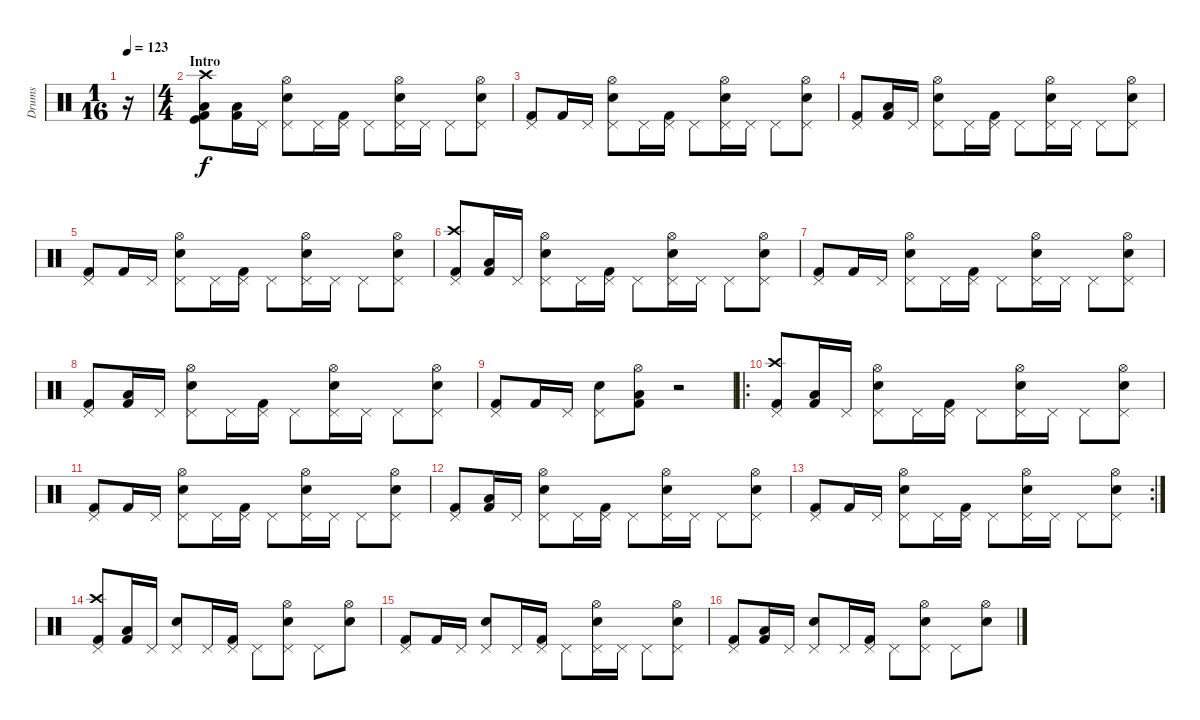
\track ("Drums" "Drums") {instrument percussion}
\staff {score}
\articulation defaults
\ts (1 16)
\tempo 123
\clef neutral
\ks c
r.16{dy f} |
\ts (4 4)
\section ("" "Intro")
("Kick (hit) 2" "Kick (hit)" "Low Floor Tom (hit)" "Crash high (hit)").8 ("Kick (hit) 2" "Low Tom (hit)").16 "Pedal Hi-Hat (hit)".16 ("Snare (hit) 2" "Pedal Hi-Hat (hit)" "Hi-Hat (open)").8 "Pedal Hi-Hat (hit)".16 ("Kick (hit) 2" "Pedal Hi-Hat (hit)").16 "Pedal Hi-Hat (hit)".8 ("Snare (hit) 2" "Pedal Hi-Hat (hit)" "Hi-Hat (open)").16 "Pedal Hi-Hat (hit)".16 "Pedal Hi-Hat (hit)".8 ("Snare (hit) 2" "Pedal Hi-Hat (hit)" "Hi-Hat (open)").8 |
("Kick (hit) 2" "Pedal Hi-Hat (hit)").8 "Kick (hit) 2".16 "Pedal Hi-Hat (hit)".16 ("Snare (hit) 2" "Pedal Hi-Hat (hit)" "Hi-Hat (open)").8 "Pedal Hi-Hat (hit)".16 ("Kick (hit) 2" "Pedal Hi-Hat (hit)").16 "Pedal Hi-Hat (hit)".8 ("Snare (hit) 2" "Pedal Hi-Hat (hit)" "Hi-Hat (open)").16 "Pedal Hi-Hat (hit)".16 "Pedal Hi-Hat (hit)".8 ("Snare (hit) 2" "Pedal Hi-Hat (hit)" "Hi-Hat (open)").8 |
("Kick (hit) 2" "Pedal Hi-Hat (hit)").8 ("Kick (hit) 2" "Low Tom (hit)").16 "Pedal Hi-Hat (hit)".16 ("Snare (hit) 2" "Pedal Hi-Hat (hit)" "Hi-Hat (open)").8 "Pedal Hi-Hat (hit)".16 ("Kick (hit) 2" "Pedal Hi-Hat (hit)").16 "Pedal Hi-Hat (hit)".8 ("Snare (hit) 2" "Pedal Hi-Hat (hit)" "Hi-Hat (open)").16 "Pedal Hi-Hat (hit)".16 "Pedal Hi-Hat (hit)".8 ("Snare (hit) 2" "Pedal Hi-Hat (hit)" "Hi-Hat (open)").8 |
("Kick (hit) 2" "Pedal Hi-Hat (hit)").8 "Kick (hit) 2".16 "Pedal Hi-Hat (hit)".16 ("Snare (hit) 2" "Pedal Hi-Hat (hit)" "Hi-Hat (open)").8 "Pedal Hi-Hat (hit)".16 ("Kick (hit) 2" "Pedal Hi-Hat (hit)").16 "Pedal Hi-Hat (hit)".8 ("Snare (hit) 2" "Pedal Hi-Hat (hit)" "Hi-Hat (open)").16 "Pedal Hi-Hat (hit)".16 "Pedal Hi-Hat (hit)".8 ("Snare (hit) 2" "Pedal Hi-Hat (hit)" "Hi-Hat (open)").8 |
("Kick (hit) 2" "Pedal Hi-Hat (hit)" "Crash high (hit)").8 ("Kick (hit) 2" "Low Tom (hit)").16 "Pedal Hi-Hat (hit)".16 ("Snare (hit) 2" "Pedal Hi-Hat (hit)" "Hi-Hat (open)").8 "Pedal Hi-Hat (hit)".16 ("Kick (hit) 2" "Pedal Hi-Hat (hit)").16 "Pedal Hi-Hat (hit)".8 ("Snare (hit) 2" "Pedal Hi-Hat (hit)" "Hi-Hat (open)").16 "Pedal Hi-Hat (hit)".16 "Pedal Hi-Hat (hit)".8 ("Snare (hit) 2" "Pedal Hi-Hat (hit)" "Hi-Hat (open)").8 |
("Kick (hit) 2" "Pedal Hi-Hat (hit)").8 "Kick (hit) 2".16 "Pedal Hi-Hat (hit)".16 ("Snare (hit) 2" "Pedal Hi-Hat (hit)" "Hi-Hat (open)").8 "Pedal Hi-Hat (hit)".16 ("Kick (hit) 2" "Pedal Hi-Hat (hit)").16 "Pedal Hi-Hat (hit)".8 ("Snare (hit) 2" "Pedal Hi-Hat (hit)" "Hi-Hat (open)").16 "Pedal Hi-Hat (hit)".16 "Pedal Hi-Hat (hit)".8 ("Snare (hit) 2" "Pedal Hi-Hat (hit)" "Hi-Hat (open)").8 |
("Kick (hit) 2" "Pedal Hi-Hat (hit)").8 ("Kick (hit) 2" "Low Tom (hit)").16 "Pedal Hi-Hat (hit)".16 ("Snare (hit) 2" "Pedal Hi-Hat (hit)" "Hi-Hat (open)").8 "Pedal Hi-Hat (hit)".16 ("Kick (hit) 2" "Pedal Hi-Hat (hit)").16 "Pedal Hi-Hat (hit)".8 ("Snare (hit) 2" "Pedal Hi-Hat (hit)" "Hi-Hat (open)").16 "Pedal Hi-Hat (hit)".16 "Pedal Hi-Hat (hit)".8 ("Snare (hit) 2" "Pedal Hi-Hat (hit)" "Hi-Hat (open)").8 |
("Kick (hit) 2" "Pedal Hi-Hat (hit)").8 "Kick (hit) 2".16 "Pedal Hi-Hat (hit)".16 ("Snare (hit) 2" "Pedal Hi-Hat (hit)").8 ("Kick (hit) 2" "Low Tom (hit)" "Hi-Hat (open)").8 r.2 |
\ro
("Kick (hit) 2" "Pedal Hi-Hat (hit)" "Crash high (hit)").8 ("Kick (hit) 2" "Low Tom (hit)").16 "Pedal Hi-Hat (hit)".16 ("Snare (hit) 2" "Pedal Hi-Hat (hit)" "Hi-Hat (open)").8 "Pedal Hi-Hat (hit)".16 ("Kick (hit) 2" "Pedal Hi-Hat (hit)").16 "Pedal Hi-Hat (hit)".8 ("Snare (hit) 2" "Pedal Hi-Hat (hit)" "Hi-Hat (open)").16 "Pedal Hi-Hat (hit)".16 "Pedal Hi-Hat (hit)".8 ("Snare (hit) 2" "Pedal Hi-Hat (hit)" "Hi-Hat (open)").8 |
("Kick (hit) 2" "Pedal Hi-Hat (hit)").8 "Kick (hit) 2".16 "Pedal Hi-Hat (hit)".16 ("Snare (hit) 2" "Pedal Hi-Hat (hit)" "Hi-Hat (open)").8 "Pedal Hi-Hat (hit)".16 ("Kick (hit) 2" "Pedal Hi-Hat (hit)").16 "Pedal Hi-Hat (hit)".8 ("Snare (hit) 2" "Pedal Hi-Hat (hit)" "Hi-Hat (open)").16 "Pedal Hi-Hat (hit)".16 "Pedal Hi-Hat (hit)".8 ("Snare (hit) 2" "Pedal Hi-Hat (hit)" "Hi-Hat (open)").8 |
("Kick (hit) 2" "Pedal Hi-Hat (hit)").8 ("Kick (hit) 2" "Low Tom (hit)").16 "Pedal Hi-Hat (hit)".16 ("Snare (hit) 2" "Pedal Hi-Hat (hit)" "Hi-Hat (open)").8 "Pedal Hi-Hat (hit)".16 ("Kick (hit) 2" "Pedal Hi-Hat (hit)").16 "Pedal Hi-Hat (hit)".8 ("Snare (hit) 2" "Pedal Hi-Hat (hit)" "Hi-Hat (open)").16 "Pedal Hi-Hat (hit)".16 "Pedal Hi-Hat (hit)".8 ("Snare (hit) 2" "Pedal Hi-Hat (hit)" "Hi-Hat (open)").8 |
\rc 2
("Kick (hit) 2" "Pedal Hi-Hat (hit)").8 "Kick (hit) 2".16 "Pedal Hi-Hat (hit)".16 ("Snare (hit) 2" "Pedal Hi-Hat (hit)" "Hi-Hat (open)").8 "Pedal Hi-Hat (hit)".16 ("Kick (hit) 2" "Pedal Hi-Hat (hit)").16 "Pedal Hi-Hat (hit)".8 ("Snare (hit) 2" "Pedal Hi-Hat (hit)" "Hi-Hat (open)").16 "Pedal Hi-Hat (hit)".16 "Pedal Hi-Hat (hit)".8 ("Snare (hit) 2" "Pedal Hi-Hat (hit)" "Hi-Hat (open)").8 |
("Kick (hit) 2" "Pedal Hi-Hat (hit)" "Crash high (hit)").8 ("Kick (hit) 2" "Low Tom (hit)").16 "Pedal Hi-Hat (hit)".16 ("Snare (hit) 2" "Pedal Hi-Hat (hit)").8 "Pedal Hi-Hat (hit)".16 ("Kick (hit) 2" "Pedal Hi-Hat (hit)").16 "Pedal Hi-Hat (hit)".8 ("Snare (hit) 2" "Pedal Hi-Hat (hit)" "Hi-Hat (open)").8 "Pedal Hi-Hat (hit)".8 ("Snare (hit) 2" "Hi-Hat (open)").8 |
("Kick (hit) 2" "Pedal Hi-Hat (hit)").8 "Kick (hit) 2".16 "Pedal Hi-Hat (hit)".16 ("Snare (hit) 2" "Pedal Hi-Hat (hit)").8 "Pedal Hi-Hat (hit)".16 ("Kick (hit) 2" "Pedal Hi-Hat (hit)").16 "Pedal Hi-Hat (hit)".8 ("Snare (hit) 2" "Pedal Hi-Hat (hit)" "Hi-Hat (open)").16 "Pedal Hi-Hat (hit)".16 "Pedal Hi-Hat (hit)".8 ("Snare (hit) 2" "Pedal Hi-Hat (hit)" "Hi-Hat (open)").8 |
("Kick (hit) 2" "Pedal Hi-Hat (hit)").8 ("Kick (hit) 2" "Low Tom (hit)").16 "Pedal Hi-Hat (hit)".16 ("Snare (hit) 2" "Pedal Hi-Hat (hit)").8 "Pedal Hi-Hat (hit)".16 ("Kick (hit) 2" "Pedal Hi-Hat (hit)").16 "Pedal Hi-Hat (hit)".8 ("Snare (hit) 2" "Pedal Hi-Hat (hit)" "Hi-Hat (open)").8 "Pedal Hi-Hat (hit)".8 ("Snare (hit) 2" "Hi-Hat (open)").8
